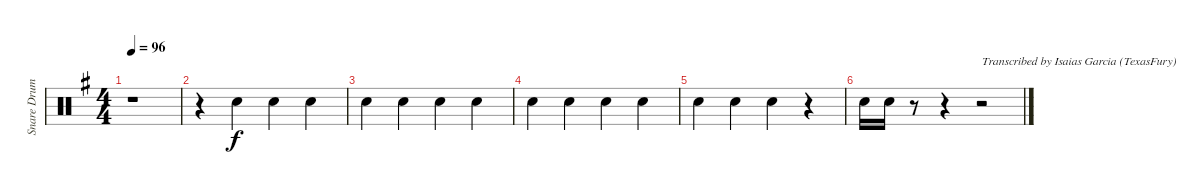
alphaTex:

\track ("Snare Drum - reverb" "Snare Drum") {instrument percussion}
\staff {score}
\articulation defaults
\ts (4 4)
\tempo 96
\clef neutral
\ks g
r.1{dy f} |
r.4{beam merge} "Snare (hit) 2".4{beam merge} "Snare (hit) 2".4{beam merge} "Snare (hit) 2".4 |
"Snare (hit) 2".4{beam merge} "Snare (hit) 2".4{beam merge} "Snare (hit) 2".4{beam merge} "Snare (hit) 2".4 |
"Snare (hit) 2".4{beam merge} "Snare (hit) 2".4{beam merge} "Snare (hit) 2".4{beam merge} "Snare (hit) 2".4 |
"Snare (hit) 2".4{beam merge} "Snare (hit) 2".4{beam merge} "Snare (hit) 2".4 r.4 |
"Snare (hit) 2".16 "Snare (hit) 2".16 r.8 r.4 r.2{txt "Transcribed by Isaias Garcia (TexasFury)"}
